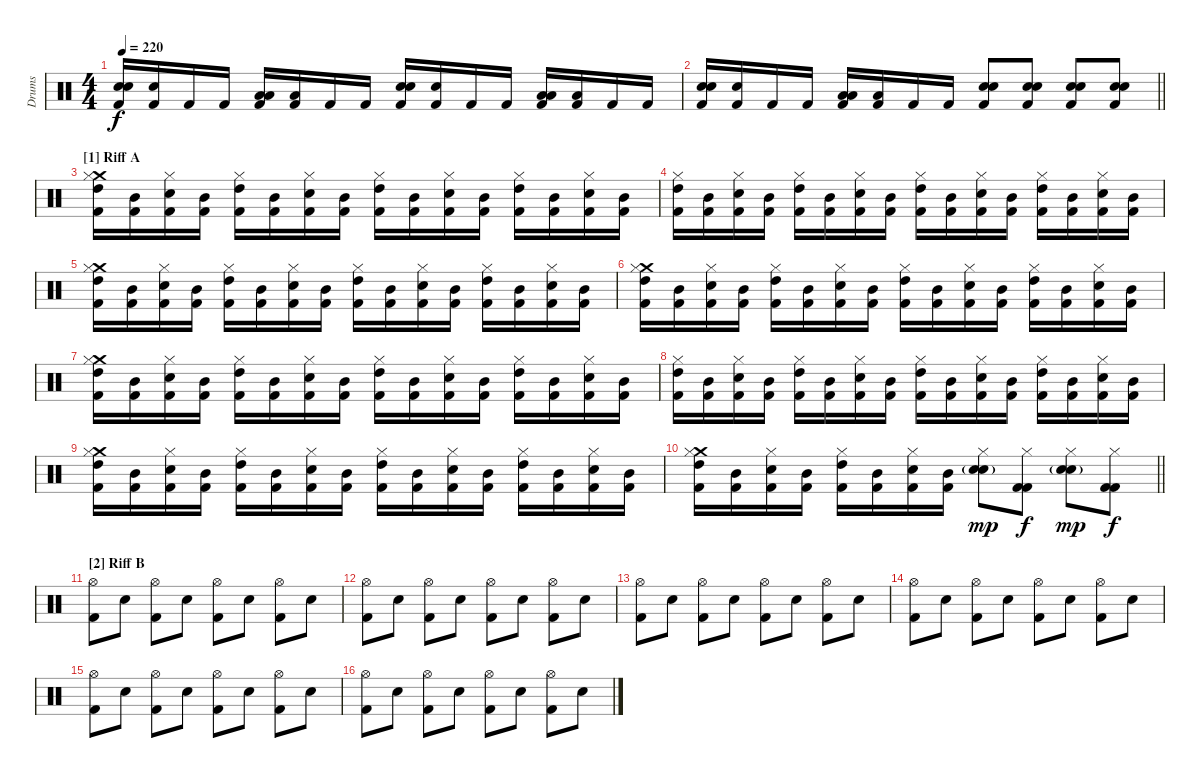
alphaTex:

\track ("Drums" "Drums") {instrument percussion}
\staff {score}
\articulation defaults
\ts (4 4)
\tempo 220
\clef neutral
\ks c
("Electric Snare (hit)" "Snare (hit) 2" "Kick (hit) 2").16{dy f} ("Snare (hit) 2" "Kick (hit) 2").16 "Kick (hit) 2".16 "Kick (hit) 2".16 ("Low Floor Tom (hit)" "Low Tom (hit)" "Kick (hit) 2").16 ("Low Tom (hit)" "Kick (hit) 2").16 "Kick (hit) 2".16 "Kick (hit) 2".16 ("Electric Snare (hit)" "Snare (hit) 2" "Kick (hit) 2").16 ("Snare (hit) 2" "Kick (hit) 2").16 "Kick (hit) 2".16 "Kick (hit) 2".16 ("Low Floor Tom (hit)" "Low Tom (hit)" "Kick (hit) 2").16 ("Low Tom (hit)" "Kick (hit) 2").16 "Kick (hit) 2".16 "Kick (hit) 2".16 |
\barLineRight lightlight
("Electric Snare (hit)" "Snare (hit) 2" "Kick (hit) 2").16 ("Snare (hit) 2" "Kick (hit) 2").16 "Kick (hit) 2".16 "Kick (hit) 2".16 ("Low Floor Tom (hit)" "Low Tom (hit)" "Kick (hit) 2").16 ("Low Tom (hit)" "Kick (hit) 2").16 "Kick (hit) 2".16 "Kick (hit) 2".16 ("Snare (hit) 2" "Electric Snare (hit)" "Kick (hit) 2").8 ("Snare (hit) 2" "Electric Snare (hit)" "Kick (hit) 2").8 ("Snare (hit) 2" "Electric Snare (hit)" "Kick (hit) 2").8 ("Snare (hit) 2" "Electric Snare (hit)" "Kick (hit) 2").8 |
\section ("" "[1] Riff A")
("Crash medium (hit)" "Hi-Hat (closed)" "High Tom (hit)" "Kick (hit) 2").16 ("Mid Tom (hit)" "Kick (hit) 2").16 ("Hi-Hat (closed)" "Electric Snare (hit)" "Kick (hit) 2").16 ("Mid Tom (hit)" "Kick (hit) 2").16 ("Hi-Hat (closed)" "High Tom (hit)" "Kick (hit) 2").16 ("Mid Tom (hit)" "Kick (hit) 2").16 ("Hi-Hat (closed)" "Electric Snare (hit)" "Kick (hit) 2").16 ("Mid Tom (hit)" "Kick (hit) 2").16 ("Hi-Hat (closed)" "High Tom (hit)" "Kick (hit) 2").16 ("Mid Tom (hit)" "Kick (hit) 2").16 ("Hi-Hat (closed)" "Electric Snare (hit)" "Kick (hit) 2").16 ("Mid Tom (hit)" "Kick (hit) 2").16 ("Hi-Hat (closed)" "High Tom (hit)" "Kick (hit) 2").16 ("Mid Tom (hit)" "Kick (hit) 2").16 ("Hi-Hat (closed)" "Electric Snare (hit)" "Kick (hit) 2").16 ("Mid Tom (hit)" "Kick (hit) 2").16 |
("Hi-Hat (closed)" "High Tom (hit)" "Kick (hit) 2").16 ("Mid Tom (hit)" "Kick (hit) 2").16 ("Hi-Hat (closed)" "Electric Snare (hit)" "Kick (hit) 2").16 ("Mid Tom (hit)" "Kick (hit) 2").16 ("Hi-Hat (closed)" "High Tom (hit)" "Kick (hit) 2").16 ("Mid Tom (hit)" "Kick (hit) 2").16 ("Hi-Hat (closed)" "Electric Snare (hit)" "Kick (hit) 2").16 ("Mid Tom (hit)" "Kick (hit) 2").16 ("Hi-Hat (closed)" "High Tom (hit)" "Kick (hit) 2").16 ("Mid Tom (hit)" "Kick (hit) 2").16 ("Hi-Hat (closed)" "Electric Snare (hit)" "Kick (hit) 2").16 ("Mid Tom (hit)" "Kick (hit) 2").16 ("Hi-Hat (closed)" "High Tom (hit)" "Kick (hit) 2").16 ("Mid Tom (hit)" "Kick (hit) 2").16 ("Hi-Hat (closed)" "Electric Snare (hit)" "Kick (hit) 2").16 ("Mid Tom (hit)" "Kick (hit) 2").16 |
("Crash medium (hit)" "Hi-Hat (closed)" "High Tom (hit)" "Kick (hit) 2").16 ("Mid Tom (hit)" "Kick (hit) 2").16 ("Hi-Hat (closed)" "Electric Snare (hit)" "Kick (hit) 2").16 ("Mid Tom (hit)" "Kick (hit) 2").16 ("Hi-Hat (closed)" "High Tom (hit)" "Kick (hit) 2").16 ("Mid Tom (hit)" "Kick (hit) 2").16 ("Hi-Hat (closed)" "Electric Snare (hit)" "Kick (hit) 2").16 ("Mid Tom (hit)" "Kick (hit) 2").16 ("Hi-Hat (closed)" "High Tom (hit)" "Kick (hit) 2").16 ("Mid Tom (hit)" "Kick (hit) 2").16 ("Hi-Hat (closed)" "Electric Snare (hit)" "Kick (hit) 2").16 ("Mid Tom (hit)" "Kick (hit) 2").16 ("Hi-Hat (closed)" "High Tom (hit)" "Kick (hit) 2").16 ("Mid Tom (hit)" "Kick (hit) 2").16 ("Hi-Hat (closed)" "Electric Snare (hit)" "Kick (hit) 2").16 ("Mid Tom (hit)" "Kick (hit) 2").16 |
("Crash medium (hit)" "Hi-Hat (closed)" "High Tom (hit)" "Kick (hit) 2").16 ("Mid Tom (hit)" "Kick (hit) 2").16 ("Hi-Hat (closed)" "Electric Snare (hit)" "Kick (hit) 2").16 ("Mid Tom (hit)" "Kick (hit) 2").16 ("Hi-Hat (closed)" "High Tom (hit)" "Kick (hit) 2").16 ("Mid Tom (hit)" "Kick (hit) 2").16 ("Hi-Hat (closed)" "Electric Snare (hit)" "Kick (hit) 2").16 ("Mid Tom (hit)" "Kick (hit) 2").16 ("Hi-Hat (closed)" "High Tom (hit)" "Kick (hit) 2").16 ("Mid Tom (hit)" "Kick (hit) 2").16 ("Hi-Hat (closed)" "Electric Snare (hit)" "Kick (hit) 2").16 ("Mid Tom (hit)" "Kick (hit) 2").16 ("Hi-Hat (closed)" "High Tom (hit)" "Kick (hit) 2").16 ("Mid Tom (hit)" "Kick (hit) 2").16 ("Hi-Hat (closed)" "Electric Snare (hit)" "Kick (hit) 2").16 ("Mid Tom (hit)" "Kick (hit) 2").16 |
("Crash medium (hit)" "Hi-Hat (closed)" "High Tom (hit)" "Kick (hit) 2").16 ("Mid Tom (hit)" "Kick (hit) 2").16 ("Hi-Hat (closed)" "Electric Snare (hit)" "Kick (hit) 2").16 ("Mid Tom (hit)" "Kick (hit) 2").16 ("Hi-Hat (closed)" "High Tom (hit)" "Kick (hit) 2").16 ("Mid Tom (hit)" "Kick (hit) 2").16 ("Hi-Hat (closed)" "Electric Snare (hit)" "Kick (hit) 2").16 ("Mid Tom (hit)" "Kick (hit) 2").16 ("Hi-Hat (closed)" "High Tom (hit)" "Kick (hit) 2").16 ("Mid Tom (hit)" "Kick (hit) 2").16 ("Hi-Hat (closed)" "Electric Snare (hit)" "Kick (hit) 2").16 ("Mid Tom (hit)" "Kick (hit) 2").16 ("Hi-Hat (closed)" "High Tom (hit)" "Kick (hit) 2").16 ("Mid Tom (hit)" "Kick (hit) 2").16 ("Hi-Hat (closed)" "Electric Snare (hit)" "Kick (hit) 2").16 ("Mid Tom (hit)" "Kick (hit) 2").16 |
("Hi-Hat (closed)" "High Tom (hit)" "Kick (hit) 2").16 ("Mid Tom (hit)" "Kick (hit) 2").16 ("Hi-Hat (closed)" "Electric Snare (hit)" "Kick (hit) 2").16 ("Mid Tom (hit)" "Kick (hit) 2").16 ("Hi-Hat (closed)" "High Tom (hit)" "Kick (hit) 2").16 ("Mid Tom (hit)" "Kick (hit) 2").16 ("Hi-Hat (closed)" "Electric Snare (hit)" "Kick (hit) 2").16 ("Mid Tom (hit)" "Kick (hit) 2").16 ("Hi-Hat (closed)" "High Tom (hit)" "Kick (hit) 2").16 ("Mid Tom (hit)" "Kick (hit) 2").16 ("Hi-Hat (closed)" "Electric Snare (hit)" "Kick (hit) 2").16 ("Mid Tom (hit)" "Kick (hit) 2").16 ("Hi-Hat (closed)" "High Tom (hit)" "Kick (hit) 2").16 ("Mid Tom (hit)" "Kick (hit) 2").16 ("Hi-Hat (closed)" "Electric Snare (hit)" "Kick (hit) 2").16 ("Mid Tom (hit)" "Kick (hit) 2").16 |
("Crash medium (hit)" "Hi-Hat (closed)" "High Tom (hit)" "Kick (hit) 2").16 ("Mid Tom (hit)" "Kick (hit) 2").16 ("Hi-Hat (closed)" "Electric Snare (hit)" "Kick (hit) 2").16 ("Mid Tom (hit)" "Kick (hit) 2").16 ("Hi-Hat (closed)" "High Tom (hit)" "Kick (hit) 2").16 ("Mid Tom (hit)" "Kick (hit) 2").16 ("Hi-Hat (closed)" "Electric Snare (hit)" "Kick (hit) 2").16 ("Mid Tom (hit)" "Kick (hit) 2").16 ("Hi-Hat (closed)" "High Tom (hit)" "Kick (hit) 2").16 ("Mid Tom (hit)" "Kick (hit) 2").16 ("Hi-Hat (closed)" "Electric Snare (hit)" "Kick (hit) 2").16 ("Mid Tom (hit)" "Kick (hit) 2").16 ("Hi-Hat (closed)" "High Tom (hit)" "Kick (hit) 2").16 ("Mid Tom (hit)" "Kick (hit) 2").16 ("Hi-Hat (closed)" "Electric Snare (hit)" "Kick (hit) 2").16 ("Mid Tom (hit)" "Kick (hit) 2").16 |
\barLineRight lightlight
("Crash medium (hit)" "Hi-Hat (closed)" "High Tom (hit)" "Kick (hit) 2").16 ("Mid Tom (hit)" "Kick (hit) 2").16 ("Hi-Hat (closed)" "Electric Snare (hit)" "Kick (hit) 2").16 ("Mid Tom (hit)" "Kick (hit) 2").16 ("Hi-Hat (closed)" "High Tom (hit)" "Kick (hit) 2").16 ("Mid Tom (hit)" "Kick (hit) 2").16 ("Hi-Hat (closed)" "Electric Snare (hit)" "Kick (hit) 2").16 ("Mid Tom (hit)" "Kick (hit) 2").16 ("Hi-Hat (closed)" "Electric Snare (hit)"{g} "Snare (hit) 2").8{dy mp} ("Hi-Hat (closed)" "Kick (hit) 2" "Kick (hit) 2").8{dy f} ("Hi-Hat (closed)" "Electric Snare (hit)"{g} "Snare (hit) 2").8{dy mp} ("Hi-Hat (closed)" "Kick (hit) 2" "Kick (hit) 2").8{dy f} |
\section ("" "[2] Riff B")
("Hi-Hat (open)" "Kick (hit) 2").8 "Snare (hit) 2".8 ("Hi-Hat (open)" "Kick (hit) 2").8 "Snare (hit) 2".8 ("Hi-Hat (open)" "Kick (hit) 2").8 "Snare (hit) 2".8 ("Hi-Hat (open)" "Kick (hit) 2").8 "Snare (hit) 2".8 |
("Hi-Hat (open)" "Kick (hit) 2").8 "Snare (hit) 2".8 ("Hi-Hat (open)" "Kick (hit) 2").8 "Snare (hit) 2".8 ("Hi-Hat (open)" "Kick (hit) 2").8 "Snare (hit) 2".8 ("Hi-Hat (open)" "Kick (hit) 2").8 "Snare (hit) 2".8 |
("Hi-Hat (open)" "Kick (hit) 2").8 "Snare (hit) 2".8 ("Hi-Hat (open)" "Kick (hit) 2").8 "Snare (hit) 2".8 ("Hi-Hat (open)" "Kick (hit) 2").8 "Snare (hit) 2".8 ("Hi-Hat (open)" "Kick (hit) 2").8 "Snare (hit) 2".8 |
("Hi-Hat (open)" "Kick (hit) 2").8 "Snare (hit) 2".8 ("Hi-Hat (open)" "Kick (hit) 2").8 "Snare (hit) 2".8 ("Hi-Hat (open)" "Kick (hit) 2").8 "Snare (hit) 2".8 ("Hi-Hat (open)" "Kick (hit) 2").8 "Snare (hit) 2".8 |
("Hi-Hat (open)" "Kick (hit) 2").8 "Snare (hit) 2".8 ("Hi-Hat (open)" "Kick (hit) 2").8 "Snare (hit) 2".8 ("Hi-Hat (open)" "Kick (hit) 2").8 "Snare (hit) 2".8 ("Hi-Hat (open)" "Kick (hit) 2").8 "Snare (hit) 2".8 |
("Hi-Hat (open)" "Kick (hit) 2").8 "Snare (hit) 2".8 ("Hi-Hat (open)" "Kick (hit) 2").8 "Snare (hit) 2".8 ("Hi-Hat (open)" "Kick (hit) 2").8 "Snare (hit) 2".8 ("Hi-Hat (open)" "Kick (hit) 2").8 "Snare (hit) 2".8
